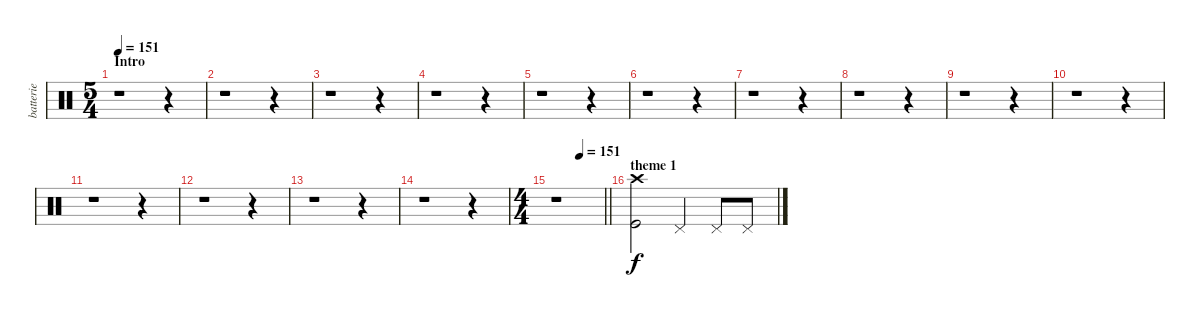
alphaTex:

\track ("batterie" "batterie") {instrument percussion}
\staff {score}
\articulation defaults
\ts (5 4)
\section ("" "Intro")
\tempo 151
\tempo 140
\tempo 151
\clef neutral
\ks c
r.1{dy f} r.4 |
r.1 r.4 |
r.1 r.4 |
r.1 r.4 |
r.1 r.4 |
r.1 r.4 |
r.1 r.4 |
r.1 r.4 |
r.1 r.4 |
r.1 r.4 |
r.1 r.4 |
r.1 r.4 |
r.1 r.4 |
r.1 r.4 |
\ts (4 4)
\tempo (151 0.5)
\barLineRight lightlight
r.1 |
\section ("" "theme 1")
("Crash high (hit)" "Kick (hit)").2 "Pedal Hi-Hat (hit)".4 "Pedal Hi-Hat (hit)".8 "Pedal Hi-Hat (hit)".8
